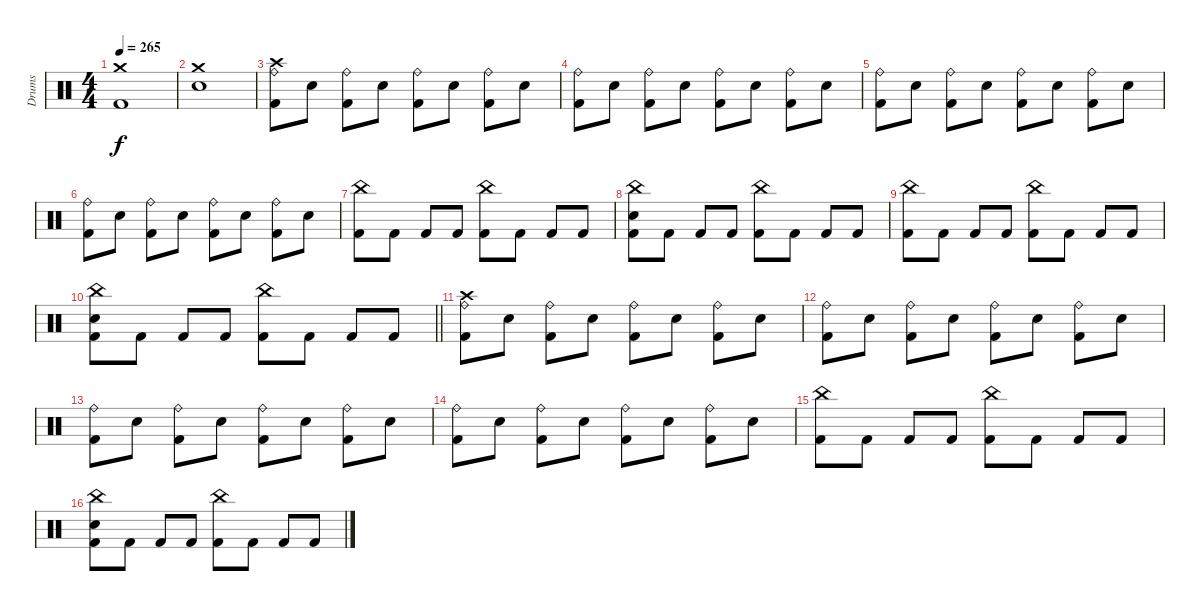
\track ("Drums" "Drums") {instrument percussion}
\staff {score}
\articulation defaults
\ts (4 4)
\tempo 265
\clef neutral
\ks c
("Crash medium (hit)" "Kick (hit) 2").1{dy f} |
("Crash medium (hit)" "Electric Snare (hit)").1 |
("Ride (bell)" "Crash high (hit)" "Kick (hit) 2").8 "Electric Snare (hit)".8 ("Ride (bell)" "Kick (hit) 2").8 "Electric Snare (hit)".8 ("Ride (bell)" "Kick (hit) 2").8 "Electric Snare (hit)".8 ("Ride (bell)" "Kick (hit) 2").8 "Electric Snare (hit)".8 |
("Ride (bell)" "Kick (hit) 2").8 "Electric Snare (hit)".8 ("Ride (bell)" "Kick (hit) 2").8 "Electric Snare (hit)".8 ("Ride (bell)" "Kick (hit) 2").8 "Electric Snare (hit)".8 ("Ride (bell)" "Kick (hit) 2").8 "Electric Snare (hit)".8 |
("Ride (bell)" "Kick (hit) 2").8 "Electric Snare (hit)".8 ("Ride (bell)" "Kick (hit) 2").8 "Electric Snare (hit)".8 ("Ride (bell)" "Kick (hit) 2").8 "Electric Snare (hit)".8 ("Ride (bell)" "Kick (hit) 2").8 "Electric Snare (hit)".8 |
("Ride (bell)" "Kick (hit) 2").8 "Electric Snare (hit)".8 ("Ride (bell)" "Kick (hit) 2").8 "Electric Snare (hit)".8 ("Ride (bell)" "Kick (hit) 2").8 "Electric Snare (hit)".8 ("Ride (bell)" "Kick (hit) 2").8 "Electric Snare (hit)".8 |
("Kick (hit) 2" "China (hit)").8 "Kick (hit) 2".8 "Kick (hit) 2".8 "Kick (hit) 2".8 ("Kick (hit) 2" "China (hit)").8 "Kick (hit) 2".8 "Kick (hit) 2".8 "Kick (hit) 2".8 |
("Kick (hit) 2" "China (hit)" "Electric Snare (hit)").8 "Kick (hit) 2".8 "Kick (hit) 2".8 "Kick (hit) 2".8 ("Kick (hit) 2" "China (hit)").8 "Kick (hit) 2".8 "Kick (hit) 2".8 "Kick (hit) 2".8 |
("Kick (hit) 2" "China (hit)").8 "Kick (hit) 2".8 "Kick (hit) 2".8 "Kick (hit) 2".8 ("Kick (hit) 2" "China (hit)").8 "Kick (hit) 2".8 "Kick (hit) 2".8 "Kick (hit) 2".8 |
\barLineRight lightlight
("Kick (hit) 2" "China (hit)" "Electric Snare (hit)").8 "Kick (hit) 2".8 "Kick (hit) 2".8 "Kick (hit) 2".8 ("Kick (hit) 2" "China (hit)").8 "Kick (hit) 2".8 "Kick (hit) 2".8 "Kick (hit) 2".8 |
("Ride (bell)" "Crash high (hit)" "Kick (hit) 2").8 "Electric Snare (hit)".8 ("Ride (bell)" "Kick (hit) 2").8 "Electric Snare (hit)".8 ("Ride (bell)" "Kick (hit) 2").8 "Electric Snare (hit)".8 ("Ride (bell)" "Kick (hit) 2").8 "Electric Snare (hit)".8 |
("Ride (bell)" "Kick (hit) 2").8 "Electric Snare (hit)".8 ("Ride (bell)" "Kick (hit) 2").8 "Electric Snare (hit)".8 ("Ride (bell)" "Kick (hit) 2").8 "Electric Snare (hit)".8 ("Ride (bell)" "Kick (hit) 2").8 "Electric Snare (hit)".8 |
("Ride (bell)" "Kick (hit) 2").8 "Electric Snare (hit)".8 ("Ride (bell)" "Kick (hit) 2").8 "Electric Snare (hit)".8 ("Ride (bell)" "Kick (hit) 2").8 "Electric Snare (hit)".8 ("Ride (bell)" "Kick (hit) 2").8 "Electric Snare (hit)".8 |
("Ride (bell)" "Kick (hit) 2").8 "Electric Snare (hit)".8 ("Ride (bell)" "Kick (hit) 2").8 "Electric Snare (hit)".8 ("Ride (bell)" "Kick (hit) 2").8 "Electric Snare (hit)".8 ("Ride (bell)" "Kick (hit) 2").8 "Electric Snare (hit)".8 |
("Kick (hit) 2" "China (hit)").8 "Kick (hit) 2".8 "Kick (hit) 2".8 "Kick (hit) 2".8 ("Kick (hit) 2" "China (hit)").8 "Kick (hit) 2".8 "Kick (hit) 2".8 "Kick (hit) 2".8 |
("Kick (hit) 2" "China (hit)" "Electric Snare (hit)").8 "Kick (hit) 2".8 "Kick (hit) 2".8 "Kick (hit) 2".8 ("Kick (hit) 2" "China (hit)").8 "Kick (hit) 2".8 "Kick (hit) 2".8 "Kick (hit) 2".8
